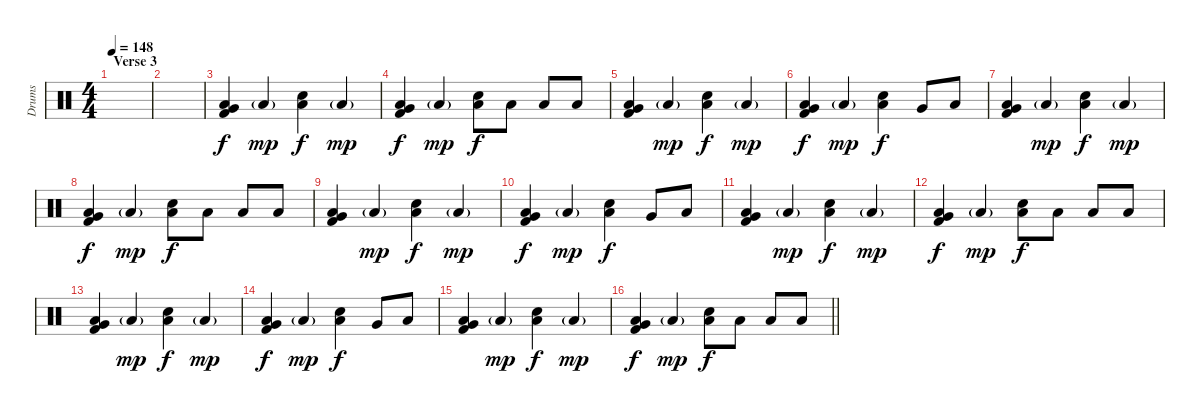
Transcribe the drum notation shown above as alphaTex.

\track ("Drums" "Drums") {instrument percussion}
\staff {score}
\articulation defaults
\ts (4 4)
\section ("" "Verse 3")
\tempo 148
\clef neutral
\ks c
|
|
("Kick (hit) 2" "Very Low Tom (hit)" "Low Floor Tom (hit)").4 "Low Floor Tom (hit)"{g}.4{dy mp} ("Electric Snare (hit)" "Low Floor Tom (hit)").4{dy f} "Low Floor Tom (hit)"{g}.4{dy mp} |
("Kick (hit) 2" "Very Low Tom (hit)" "Low Floor Tom (hit)").4{dy f} "Low Floor Tom (hit)"{g}.4{dy mp} ("Electric Snare (hit)" "Low Floor Tom (hit)").8{dy f} "Low Floor Tom (hit)".8 "Low Floor Tom (hit)".8 "Low Floor Tom (hit)".8 |
("Kick (hit) 2" "Very Low Tom (hit)" "Low Floor Tom (hit)").4 "Low Floor Tom (hit)"{g}.4{dy mp} ("Electric Snare (hit)" "Low Floor Tom (hit)").4{dy f} "Low Floor Tom (hit)"{g}.4{dy mp} |
("Kick (hit) 2" "Very Low Tom (hit)" "Low Floor Tom (hit)").4{dy f} "Low Floor Tom (hit)"{g}.4{dy mp} ("Electric Snare (hit)" "Low Floor Tom (hit)").4{dy f} "Very Low Tom (hit)".8 "Low Floor Tom (hit)".8 |
("Kick (hit) 2" "Very Low Tom (hit)" "Low Floor Tom (hit)").4 "Low Floor Tom (hit)"{g}.4{dy mp} ("Electric Snare (hit)" "Low Floor Tom (hit)").4{dy f} "Low Floor Tom (hit)"{g}.4{dy mp} |
("Kick (hit) 2" "Very Low Tom (hit)" "Low Floor Tom (hit)").4{dy f} "Low Floor Tom (hit)"{g}.4{dy mp} ("Electric Snare (hit)" "Low Floor Tom (hit)").8{dy f} "Low Floor Tom (hit)".8 "Low Floor Tom (hit)".8 "Low Floor Tom (hit)".8 |
("Kick (hit) 2" "Very Low Tom (hit)" "Low Floor Tom (hit)").4 "Low Floor Tom (hit)"{g}.4{dy mp} ("Electric Snare (hit)" "Low Floor Tom (hit)").4{dy f} "Low Floor Tom (hit)"{g}.4{dy mp} |
("Kick (hit) 2" "Very Low Tom (hit)" "Low Floor Tom (hit)").4{dy f} "Low Floor Tom (hit)"{g}.4{dy mp} ("Electric Snare (hit)" "Low Floor Tom (hit)").4{dy f} "Very Low Tom (hit)".8 "Low Floor Tom (hit)".8 |
("Kick (hit) 2" "Very Low Tom (hit)" "Low Floor Tom (hit)").4 "Low Floor Tom (hit)"{g}.4{dy mp} ("Electric Snare (hit)" "Low Floor Tom (hit)").4{dy f} "Low Floor Tom (hit)"{g}.4{dy mp} |
("Kick (hit) 2" "Very Low Tom (hit)" "Low Floor Tom (hit)").4{dy f} "Low Floor Tom (hit)"{g}.4{dy mp} ("Electric Snare (hit)" "Low Floor Tom (hit)").8{dy f} "Low Floor Tom (hit)".8 "Low Floor Tom (hit)".8 "Low Floor Tom (hit)".8 |
("Kick (hit) 2" "Very Low Tom (hit)" "Low Floor Tom (hit)").4 "Low Floor Tom (hit)"{g}.4{dy mp} ("Electric Snare (hit)" "Low Floor Tom (hit)").4{dy f} "Low Floor Tom (hit)"{g}.4{dy mp} |
("Kick (hit) 2" "Very Low Tom (hit)" "Low Floor Tom (hit)").4{dy f} "Low Floor Tom (hit)"{g}.4{dy mp} ("Electric Snare (hit)" "Low Floor Tom (hit)").4{dy f} "Very Low Tom (hit)".8 "Low Floor Tom (hit)".8 |
("Kick (hit) 2" "Very Low Tom (hit)" "Low Floor Tom (hit)").4 "Low Floor Tom (hit)"{g}.4{dy mp} ("Electric Snare (hit)" "Low Floor Tom (hit)").4{dy f} "Low Floor Tom (hit)"{g}.4{dy mp} |
\barLineRight lightlight
("Kick (hit) 2" "Very Low Tom (hit)" "Low Floor Tom (hit)").4{dy f} "Low Floor Tom (hit)"{g}.4{dy mp} ("Electric Snare (hit)" "Low Floor Tom (hit)").8{dy f} "Low Floor Tom (hit)".8 "Low Floor Tom (hit)".8 "Low Floor Tom (hit)".8
